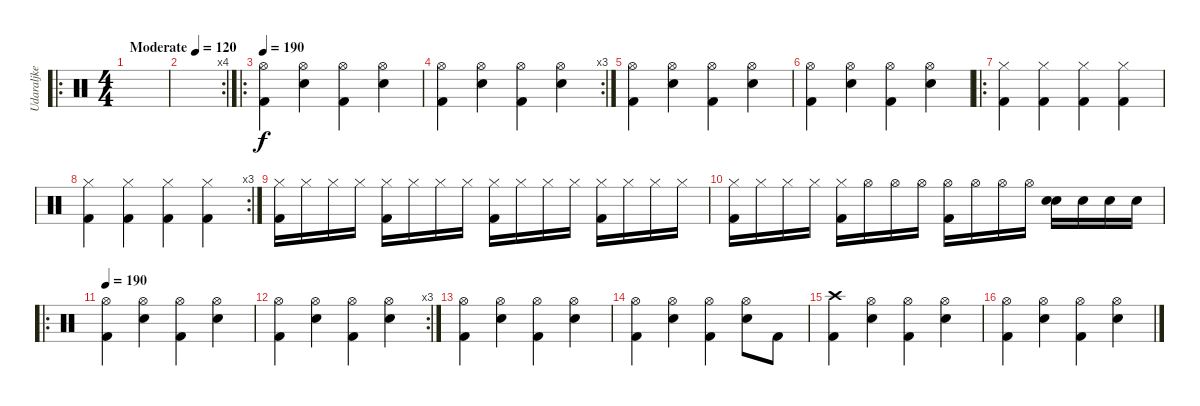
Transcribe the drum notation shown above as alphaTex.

\track ("Udaraljke" "Udaraljke") {instrument percussion}
\staff {score}
\articulation defaults
\ro
\ts (4 4)
\tempo (120 "Moderate")
\tempo 197
\tempo (120 "Moderate")
\clef neutral
\ks c
|
\rc 4
|
\ro
\tempo 190
("Hi-Hat (open)" "Kick (hit) 2").4 ("Hi-Hat (open)" "Electric Snare (hit)").4 ("Hi-Hat (open)" "Kick (hit) 2").4 ("Hi-Hat (open)" "Electric Snare (hit)").4 |
\rc 3
("Hi-Hat (open)" "Kick (hit) 2").4 ("Hi-Hat (open)" "Electric Snare (hit)").4 ("Hi-Hat (open)" "Kick (hit) 2").4 ("Hi-Hat (open)" "Electric Snare (hit)").4 |
("Hi-Hat (open)" "Kick (hit) 2").4 ("Hi-Hat (open)" "Electric Snare (hit)").4 ("Hi-Hat (open)" "Kick (hit) 2").4 ("Hi-Hat (open)" "Electric Snare (hit)").4 |
("Hi-Hat (open)" "Kick (hit) 2").4 ("Hi-Hat (open)" "Electric Snare (hit)").4 ("Hi-Hat (open)" "Kick (hit) 2").4 ("Hi-Hat (open)" "Electric Snare (hit)").4 |
\ro
("Hi-Hat (closed)" "Kick (hit) 2").4 ("Hi-Hat (closed)" "Kick (hit) 2").4 ("Hi-Hat (closed)" "Kick (hit) 2").4 ("Hi-Hat (closed)" "Kick (hit) 2").4 |
\rc 3
("Hi-Hat (closed)" "Kick (hit) 2").4 ("Hi-Hat (closed)" "Kick (hit) 2").4 ("Hi-Hat (closed)" "Kick (hit) 2").4 ("Hi-Hat (closed)" "Kick (hit) 2").4 |
("Kick (hit) 2" "Hi-Hat (closed)").16 "Hi-Hat (closed)".16 "Hi-Hat (closed)".16 "Hi-Hat (closed)".16 ("Kick (hit) 2" "Hi-Hat (closed)").16 "Hi-Hat (closed)".16 "Hi-Hat (closed)".16 "Hi-Hat (closed)".16 ("Kick (hit) 2" "Hi-Hat (closed)").16 "Hi-Hat (closed)".16 "Hi-Hat (closed)".16 "Hi-Hat (closed)".16 ("Kick (hit) 2" "Hi-Hat (closed)").16 "Hi-Hat (closed)".16 "Hi-Hat (closed)".16 "Hi-Hat (closed)".16 |
("Kick (hit) 2" "Hi-Hat (closed)").16 "Hi-Hat (closed)".16 "Hi-Hat (closed)".16 "Hi-Hat (closed)".16 ("Kick (hit) 2" "Hi-Hat (closed)").16 "Hi-Hat (open)".16 "Hi-Hat (open)".16 "Hi-Hat (open)".16 ("Kick (hit) 2" "Hi-Hat (open)").16 "Hi-Hat (open)".16 "Hi-Hat (open)".16 "Hi-Hat (open)".16 ("Electric Snare (hit)" "Electric Snare (hit)").16 "Electric Snare (hit)".16 "Electric Snare (hit)".16 "Electric Snare (hit)".16 |
\ro
\tempo 190
("Hi-Hat (open)" "Kick (hit) 2").4 ("Hi-Hat (open)" "Electric Snare (hit)").4 ("Hi-Hat (open)" "Kick (hit) 2").4 ("Hi-Hat (open)" "Electric Snare (hit)").4 |
\rc 3
("Hi-Hat (open)" "Kick (hit) 2").4 ("Hi-Hat (open)" "Electric Snare (hit)").4 ("Hi-Hat (open)" "Kick (hit) 2").4 ("Hi-Hat (open)" "Electric Snare (hit)").4 |
("Hi-Hat (open)" "Kick (hit) 2").4 ("Hi-Hat (open)" "Electric Snare (hit)").4 ("Hi-Hat (open)" "Kick (hit) 2").4 ("Hi-Hat (open)" "Electric Snare (hit)").4 |
("Hi-Hat (open)" "Kick (hit) 2").4 ("Hi-Hat (open)" "Electric Snare (hit)").4 ("Hi-Hat (open)" "Kick (hit) 2").4 ("Hi-Hat (open)" "Electric Snare (hit)").8 "Kick (hit) 2".8 |
("Crash high (hit)" "Kick (hit) 2").4 ("Hi-Hat (open)" "Electric Snare (hit)").4 ("Hi-Hat (open)" "Kick (hit) 2").4 ("Hi-Hat (open)" "Electric Snare (hit)").4 |
("Hi-Hat (open)" "Kick (hit) 2").4 ("Hi-Hat (open)" "Electric Snare (hit)").4 ("Hi-Hat (open)" "Kick (hit) 2").4 ("Hi-Hat (open)" "Electric Snare (hit)").4
